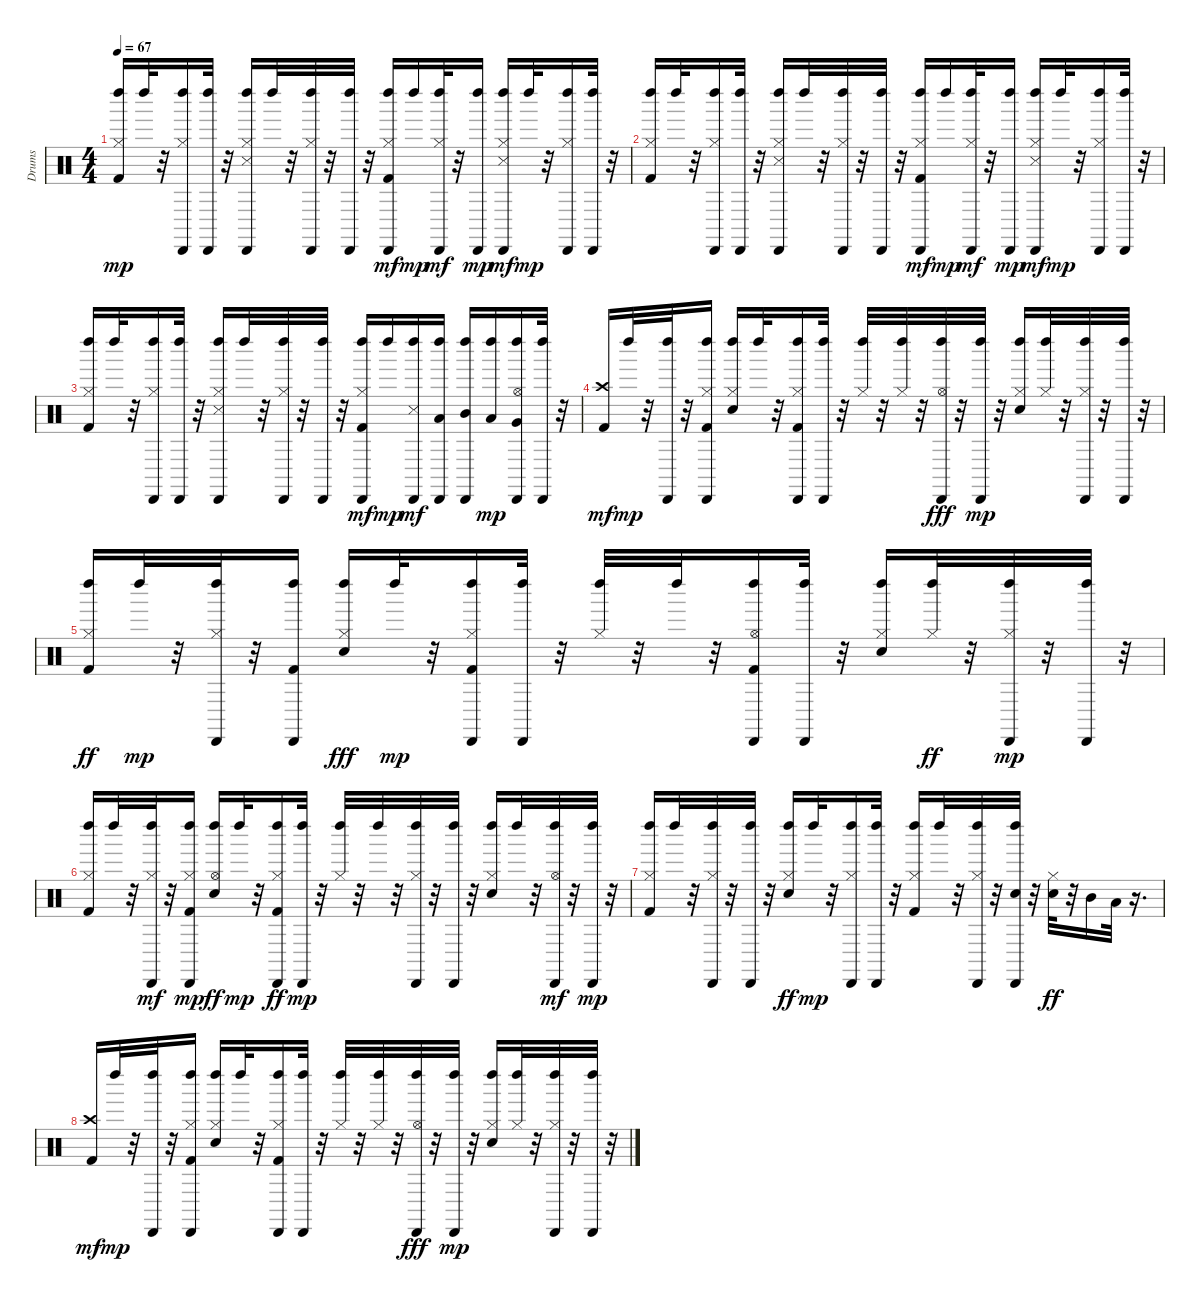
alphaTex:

\track ("Drums" "Drums") {instrument percussion}
\staff {score}
\articulation defaults
\ts (4 4)
\tempo 67
\clef neutral
\ks c
("Kick (hit) 2" "Hi-Hat (closed)" "Left Maraca (hit)").16{dy mp} "Left Maraca (hit)".32 r.32 ("Hi-Hat (closed)" "Cabasa (hit)" "Left Maraca (hit)").16 ("Cabasa (hit)" "Left Maraca (hit)").32 r.32 ("Snare (side stick) 3" "Hi-Hat (closed)" "Cabasa (hit)" "Left Maraca (hit)").16 "Left Maraca (hit)".32 r.32 ("Cabasa (hit)" "Left Maraca (hit)" "Hi-Hat (closed)").32 r.32 ("Cabasa (hit)" "Left Maraca (hit)").32 r.32 ("Hi-Hat (closed)" "Left Maraca (hit)" "Kick (hit) 2" "Cabasa (hit)").16{dy mf} "Left Maraca (hit)".16{dy mp} ("Left Maraca (hit)" "Hi-Hat (closed)" "Cabasa (hit)").32{dy mf} r.32 ("Cabasa (hit)" "Left Maraca (hit)").16{dy mp} ("Left Maraca (hit)" "Snare (side stick) 3" "Hi-Hat (closed)" "Cabasa (hit)").16{dy mf} "Left Maraca (hit)".32{dy mp} r.32 ("Hi-Hat (closed)" "Cabasa (hit)" "Left Maraca (hit)").16 ("Cabasa (hit)" "Left Maraca (hit)").32 r.32 |
("Kick (hit) 2" "Hi-Hat (closed)" "Left Maraca (hit)").16 "Left Maraca (hit)".32 r.32 ("Hi-Hat (closed)" "Cabasa (hit)" "Left Maraca (hit)").16 ("Cabasa (hit)" "Left Maraca (hit)").32 r.32 ("Snare (side stick) 3" "Hi-Hat (closed)" "Cabasa (hit)" "Left Maraca (hit)").16 "Left Maraca (hit)".32 r.32 ("Cabasa (hit)" "Left Maraca (hit)" "Hi-Hat (closed)").32 r.32 ("Cabasa (hit)" "Left Maraca (hit)").32 r.32 ("Hi-Hat (closed)" "Left Maraca (hit)" "Kick (hit) 2" "Cabasa (hit)").16{dy mf} "Left Maraca (hit)".16{dy mp} ("Left Maraca (hit)" "Hi-Hat (closed)" "Cabasa (hit)").32{dy mf} r.32 ("Cabasa (hit)" "Left Maraca (hit)").16{dy mp} ("Left Maraca (hit)" "Snare (side stick) 3" "Hi-Hat (closed)" "Cabasa (hit)").16{dy mf} "Left Maraca (hit)".32{dy mp} r.32 ("Hi-Hat (closed)" "Cabasa (hit)" "Left Maraca (hit)").16 ("Cabasa (hit)" "Left Maraca (hit)").32 r.32 |
("Kick (hit) 2" "Hi-Hat (closed)" "Left Maraca (hit)").16 "Left Maraca (hit)".32 r.32 ("Hi-Hat (closed)" "Cabasa (hit)" "Left Maraca (hit)").16 ("Cabasa (hit)" "Left Maraca (hit)").32 r.32 ("Snare (side stick) 3" "Hi-Hat (closed)" "Cabasa (hit)" "Left Maraca (hit)").16 "Left Maraca (hit)".32 r.32 ("Cabasa (hit)" "Left Maraca (hit)" "Hi-Hat (closed)").32 r.32 ("Cabasa (hit)" "Left Maraca (hit)").32 r.32 ("Hi-Hat (closed)" "Left Maraca (hit)" "Kick (hit) 2" "Cabasa (hit)").16{dy mf} "Left Maraca (hit)".16{dy mp} ("Left Maraca (hit)" "Snare (side stick) 3" "Cabasa (hit)").16{dy mf} ("Cabasa (hit)" "Left Maraca (hit)" "Low Tom (hit)").16 ("Left Maraca (hit)" "Mid Tom (hit)" "Cabasa (hit)").16 ("Left Maraca (hit)" "Low Tom (hit)").16{dy mp} ("Hi-Hat (open)" "Cabasa (hit)" "Very Low Tom (hit)" "Left Maraca (hit)").16 ("Cabasa (hit)" "Left Maraca (hit)").32 r.32 |
("Crash high (hit)" "Kick (hit) 2").16{dy mf} "Left Maraca (hit)".32{dy mp} r.32 ("Cabasa (hit)" "Left Maraca (hit)").32 r.32 ("Cabasa (hit)" "Left Maraca (hit)" "Kick (hit) 2" "Hi-Hat (closed)").16 ("Hi-Hat (closed)" "Electric Snare (hit)" "Left Maraca (hit)").16 "Left Maraca (hit)".32 r.32 ("Kick (hit) 2" "Cabasa (hit)" "Hi-Hat (closed)" "Left Maraca (hit)").16 ("Cabasa (hit)" "Left Maraca (hit)").32 r.32 ("Hi-Hat (closed)" "Left Maraca (hit)").32 r.32 ("Hi-Hat (closed)" "Left Maraca (hit)").32 r.32 ("Cabasa (hit)" "Left Maraca (hit)" "Hi-Hat (open)").32{dy fff} r.32 ("Cabasa (hit)" "Left Maraca (hit)").32{dy mp} r.32 ("Electric Snare (hit)" "Hi-Hat (closed)" "Left Maraca (hit)").16 ("Hi-Hat (closed)" "Left Maraca (hit)").32 r.32 ("Hi-Hat (closed)" "Cabasa (hit)" "Left Maraca (hit)").32 r.32 ("Cabasa (hit)" "Left Maraca (hit)").32 r.32 |
("Hi-Hat (closed)" "Left Maraca (hit)" "Kick (hit) 2").16{dy ff} "Left Maraca (hit)".32{dy mp} r.32 ("Cabasa (hit)" "Left Maraca (hit)" "Hi-Hat (closed)").32 r.32 ("Cabasa (hit)" "Left Maraca (hit)" "Kick (hit) 2").16 ("Left Maraca (hit)" "Electric Snare (hit)" "Hi-Hat (closed)").16{dy fff} "Left Maraca (hit)".32{dy mp} r.32 ("Cabasa (hit)" "Left Maraca (hit)" "Kick (hit) 2" "Hi-Hat (closed)").16 ("Cabasa (hit)" "Left Maraca (hit)").32 r.32 ("Hi-Hat (closed)" "Left Maraca (hit)").32 r.32 "Left Maraca (hit)".32 r.32 ("Kick (hit) 2" "Hi-Hat (open)" "Cabasa (hit)" "Left Maraca (hit)").16 ("Cabasa (hit)" "Left Maraca (hit)").32 r.32 ("Electric Snare (hit)" "Hi-Hat (closed)" "Left Maraca (hit)").16 ("Left Maraca (hit)" "Hi-Hat (closed)").32{dy ff} r.32 ("Hi-Hat (closed)" "Cabasa (hit)" "Left Maraca (hit)").32{dy mp} r.32 ("Cabasa (hit)" "Left Maraca (hit)").32 r.32 |
("Kick (hit) 2" "Left Maraca (hit)" "Hi-Hat (closed)").16 "Left Maraca (hit)".32 r.32 ("Hi-Hat (closed)" "Left Maraca (hit)" "Cabasa (hit)").32{dy mf} r.32 ("Hi-Hat (closed)" "Cabasa (hit)" "Left Maraca (hit)" "Kick (hit) 2").16{dy mp} ("Hi-Hat (open)" "Left Maraca (hit)" "Electric Snare (hit)").16{dy ff} "Left Maraca (hit)".32{dy mp} r.32 ("Cabasa (hit)" "Left Maraca (hit)" "Kick (hit) 2" "Hi-Hat (closed)").16{dy ff} ("Cabasa (hit)" "Left Maraca (hit)").32{dy mp} r.32 ("Hi-Hat (closed)" "Left Maraca (hit)").32 r.32 "Left Maraca (hit)".32 r.32 ("Hi-Hat (closed)" "Cabasa (hit)" "Left Maraca (hit)").32 r.32 ("Cabasa (hit)" "Left Maraca (hit)").32 r.32 ("Electric Snare (hit)" "Hi-Hat (closed)" "Left Maraca (hit)").16 "Left Maraca (hit)".32 r.32 ("Hi-Hat (open)" "Left Maraca (hit)" "Cabasa (hit)").32{dy mf} r.32 ("Cabasa (hit)" "Left Maraca (hit)").32{dy mp} r.32 |
("Kick (hit) 2" "Hi-Hat (closed)" "Left Maraca (hit)").16 "Left Maraca (hit)".32 r.32 ("Cabasa (hit)" "Left Maraca (hit)" "Hi-Hat (closed)").32 r.32 ("Cabasa (hit)" "Left Maraca (hit)").32 r.32 ("Hi-Hat (closed)" "Left Maraca (hit)" "Electric Snare (hit)").16{dy ff} "Left Maraca (hit)".32{dy mp} r.32 ("Cabasa (hit)" "Left Maraca (hit)" "Hi-Hat (closed)").16 ("Cabasa (hit)" "Left Maraca (hit)").32 r.32 ("Kick (hit) 2" "Hi-Hat (closed)" "Left Maraca (hit)").16 "Left Maraca (hit)".32 r.32 ("Hi-Hat (closed)" "Cabasa (hit)" "Left Maraca (hit)").32 r.32 ("Electric Snare (hit)" "Cabasa (hit)" "Left Maraca (hit)").32 r.32 ("Electric Snare (hit)" "Hi-Hat (closed)").32{dy ff} r.32 "Mid Tom (hit)".16 "Low Tom (hit)".32 r.16{d} |
("Crash high (hit)" "Kick (hit) 2").16{dy mf} "Left Maraca (hit)".32{dy mp} r.32 ("Cabasa (hit)" "Left Maraca (hit)").32 r.32 ("Cabasa (hit)" "Left Maraca (hit)" "Kick (hit) 2" "Hi-Hat (closed)").16 ("Hi-Hat (closed)" "Electric Snare (hit)" "Left Maraca (hit)").16 "Left Maraca (hit)".32 r.32 ("Kick (hit) 2" "Cabasa (hit)" "Hi-Hat (closed)" "Left Maraca (hit)").16 ("Cabasa (hit)" "Left Maraca (hit)").32 r.32 ("Hi-Hat (closed)" "Left Maraca (hit)").32 r.32 ("Hi-Hat (closed)" "Left Maraca (hit)").32 r.32 ("Cabasa (hit)" "Left Maraca (hit)" "Hi-Hat (open)").32{dy fff} r.32 ("Cabasa (hit)" "Left Maraca (hit)").32{dy mp} r.32 ("Electric Snare (hit)" "Hi-Hat (closed)" "Left Maraca (hit)").16 ("Hi-Hat (closed)" "Left Maraca (hit)").32 r.32 ("Hi-Hat (closed)" "Cabasa (hit)" "Left Maraca (hit)").32 r.32 ("Cabasa (hit)" "Left Maraca (hit)").32 r.32
